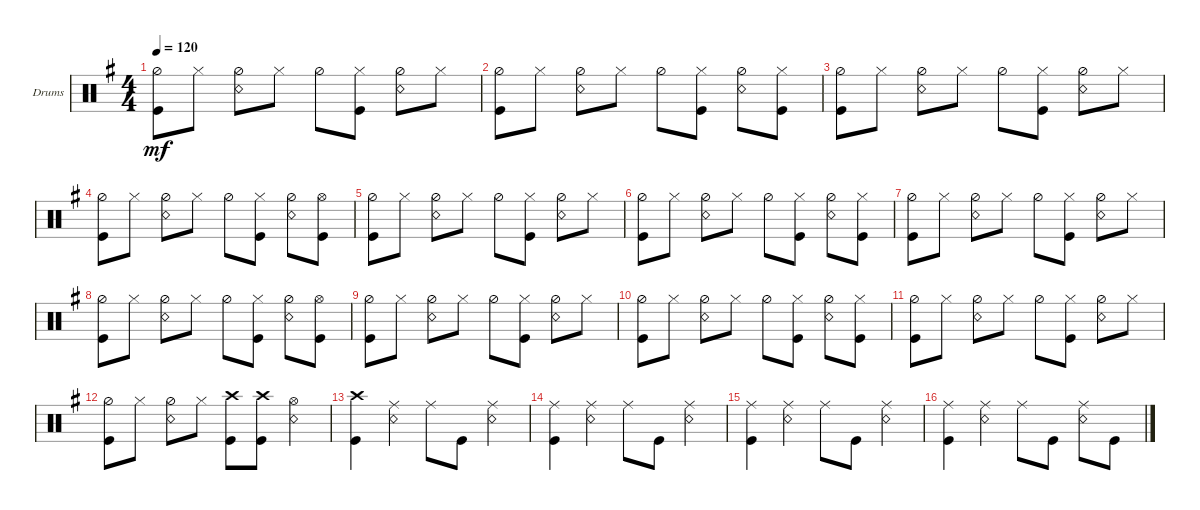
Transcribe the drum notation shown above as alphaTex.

\defaultSystemsLayout 4
\bracketExtendMode groupsimilarinstruments
\firstSystemTrackNameOrientation horizontal
\otherSystemsTrackNameOrientation horizontal
\track ("Drumkit" "Drums") {instrument percussion}
\staff {score}
\articulation defaults
\ts (4 4)
\tempo 120
\clef neutral
\ks eminor
("Kick (hit)" "Hi-Hat (half)").8{dy mf} "Hi-Hat (closed)".8 ("Hi-Hat (half)" "Snare (rim shot)").8 "Hi-Hat (closed)".8 "Hi-Hat (half)".8 ("Kick (hit)" "Hi-Hat (closed)").8 ("Hi-Hat (half)" "Snare (rim shot)").8 "Hi-Hat (closed)".8 |
("Kick (hit)" "Hi-Hat (half)").8 "Hi-Hat (closed)".8 ("Hi-Hat (half)" "Snare (rim shot)").8 "Hi-Hat (closed)".8 "Hi-Hat (half)".8 ("Kick (hit)" "Hi-Hat (closed)").8 ("Hi-Hat (half)" "Snare (rim shot)").8 ("Hi-Hat (closed)" "Kick (hit)").8 |
("Kick (hit)" "Hi-Hat (half)").8 "Hi-Hat (closed)".8 ("Hi-Hat (half)" "Snare (rim shot)").8 "Hi-Hat (closed)".8 "Hi-Hat (half)".8 ("Kick (hit)" "Hi-Hat (closed)").8 ("Hi-Hat (half)" "Snare (rim shot)").8 "Hi-Hat (closed)".8 |
("Kick (hit)" "Hi-Hat (half)").8 "Hi-Hat (closed)".8 ("Hi-Hat (half)" "Snare (rim shot)").8 "Hi-Hat (closed)".8 "Hi-Hat (half)".8 ("Kick (hit)" "Hi-Hat (closed)").8 ("Hi-Hat (half)" "Snare (rim shot)").8 ("Hi-Hat (open)" "Kick (hit)").8 |
("Kick (hit)" "Hi-Hat (half)").8 "Hi-Hat (closed)".8 ("Hi-Hat (half)" "Snare (rim shot)").8 "Hi-Hat (closed)".8 "Hi-Hat (half)".8 ("Kick (hit)" "Hi-Hat (closed)").8 ("Hi-Hat (half)" "Snare (rim shot)").8 "Hi-Hat (closed)".8 |
("Kick (hit)" "Hi-Hat (half)").8 "Hi-Hat (closed)".8 ("Hi-Hat (half)" "Snare (rim shot)").8 "Hi-Hat (closed)".8 "Hi-Hat (half)".8 ("Kick (hit)" "Hi-Hat (closed)").8 ("Hi-Hat (half)" "Snare (rim shot)").8 ("Hi-Hat (closed)" "Kick (hit)").8 |
("Kick (hit)" "Hi-Hat (half)").8 "Hi-Hat (closed)".8 ("Hi-Hat (half)" "Snare (rim shot)").8 "Hi-Hat (closed)".8 "Hi-Hat (half)".8 ("Kick (hit)" "Hi-Hat (closed)").8 ("Hi-Hat (half)" "Snare (rim shot)").8 "Hi-Hat (closed)".8 |
("Kick (hit)" "Hi-Hat (half)").8 "Hi-Hat (closed)".8 ("Hi-Hat (half)" "Snare (rim shot)").8 "Hi-Hat (closed)".8 "Hi-Hat (half)".8 ("Kick (hit)" "Hi-Hat (closed)").8 ("Hi-Hat (half)" "Snare (rim shot)").8 ("Hi-Hat (open)" "Kick (hit)").8 |
("Kick (hit)" "Hi-Hat (half)").8 "Hi-Hat (closed)".8 ("Hi-Hat (half)" "Snare (rim shot)").8 "Hi-Hat (closed)".8 "Hi-Hat (half)".8 ("Kick (hit)" "Hi-Hat (closed)").8 ("Hi-Hat (half)" "Snare (rim shot)").8 "Hi-Hat (closed)".8 |
("Kick (hit)" "Hi-Hat (half)").8 "Hi-Hat (closed)".8 ("Hi-Hat (half)" "Snare (rim shot)").8 "Hi-Hat (closed)".8 "Hi-Hat (half)".8 ("Kick (hit)" "Hi-Hat (closed)").8 ("Hi-Hat (half)" "Snare (rim shot)").8 ("Hi-Hat (closed)" "Kick (hit)").8 |
("Kick (hit)" "Hi-Hat (half)").8 "Hi-Hat (closed)".8 ("Hi-Hat (half)" "Snare (rim shot)").8 "Hi-Hat (closed)".8 "Hi-Hat (half)".8 ("Kick (hit)" "Hi-Hat (closed)").8 ("Hi-Hat (half)" "Snare (rim shot)").8 "Hi-Hat (closed)".8 |
("Kick (hit)" "Hi-Hat (half)").8 "Hi-Hat (closed)".8 ("Hi-Hat (half)" "Snare (rim shot)").8 "Hi-Hat (closed)".8 ("Crash high (hit)" "Kick (hit)").8 ("Kick (hit)" "Crash high (hit)").8 ("Hi-Hat (open)" "Snare (rim shot)").4 |
("Kick (hit)" "Crash high (hit)").4 ("Snare (rim shot)" "Ride (middle)").4 "Ride (middle)".8 "Kick (hit)".8 ("Snare (rim shot)" "Ride (middle)").4 |
("Kick (hit)" "Ride (middle)").4 ("Snare (rim shot)" "Ride (middle)").4 "Ride (middle)".8 "Kick (hit)".8 ("Snare (rim shot)" "Ride (middle)").4 |
("Kick (hit)" "Ride (middle)").4 ("Snare (rim shot)" "Ride (middle)").4 "Ride (middle)".8 "Kick (hit)".8 ("Snare (rim shot)" "Ride (middle)").4 |
("Kick (hit)" "Ride (middle)").4 ("Snare (rim shot)" "Ride (middle)").4 "Ride (middle)".8 "Kick (hit)".8 ("Snare (rim shot)" "Ride (middle)").8 "Kick (hit)".8
